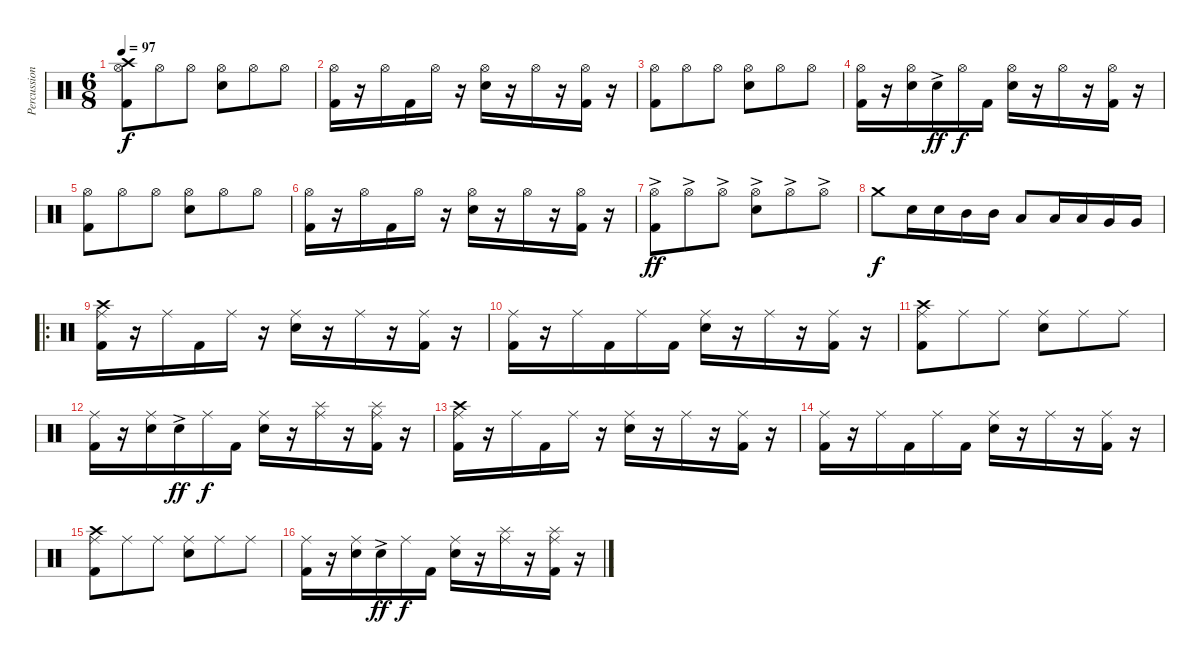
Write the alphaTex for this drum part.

\track ("Percussion" "Percussion") {instrument percussion}
\staff {score}
\articulation defaults
\ts (6 8)
\tempo 97
\clef neutral
\ks c
("Crash high (hit)" "Hi-Hat (open)" "Kick (hit) 2").8{dy f} "Hi-Hat (open)".8 "Hi-Hat (open)".8 ("Hi-Hat (open)" "Electric Snare (hit)").8 "Hi-Hat (open)".8 "Hi-Hat (open)".8 |
("Hi-Hat (open)" "Kick (hit) 2").16 r.16 "Hi-Hat (open)".16 "Kick (hit) 2".16 "Hi-Hat (open)".16 r.16 ("Hi-Hat (open)" "Electric Snare (hit)").16 r.16 "Hi-Hat (open)".16 r.16 ("Hi-Hat (open)" "Kick (hit) 2").16 r.16 |
("Hi-Hat (open)" "Kick (hit) 2").8 "Hi-Hat (open)".8 "Hi-Hat (open)".8 ("Hi-Hat (open)" "Electric Snare (hit)").8 "Hi-Hat (open)".8 "Hi-Hat (open)".8 |
("Hi-Hat (open)" "Kick (hit) 2").16 r.16 ("Hi-Hat (open)" "Electric Snare (hit)").16 "Electric Snare (hit)"{ac}.16{dy ff} "Hi-Hat (open)".16{dy f} "Kick (hit) 2".16 ("Hi-Hat (open)" "Electric Snare (hit)").16 r.16 "Hi-Hat (open)".16 r.16 ("Hi-Hat (open)" "Kick (hit) 2").16 r.16 |
("Hi-Hat (open)" "Kick (hit) 2").8 "Hi-Hat (open)".8 "Hi-Hat (open)".8 ("Hi-Hat (open)" "Electric Snare (hit)").8 "Hi-Hat (open)".8 "Hi-Hat (open)".8 |
("Hi-Hat (open)" "Kick (hit) 2").16 r.16 "Hi-Hat (open)".16 "Kick (hit) 2".16 "Hi-Hat (open)".16 r.16 ("Hi-Hat (open)" "Electric Snare (hit)").16 r.16 "Hi-Hat (open)".16 r.16 ("Hi-Hat (open)" "Kick (hit) 2").16 r.16 |
("Hi-Hat (open)"{ac} "Kick (hit) 2").8{dy ff} "Hi-Hat (open)"{ac}.8 "Hi-Hat (open)"{ac}.8 ("Hi-Hat (open)"{ac} "Electric Snare (hit)").8 "Hi-Hat (open)"{ac}.8 "Hi-Hat (open)"{ac}.8 |
"Crash medium (hit)".8{dy f} "Electric Snare (hit)".16 "Electric Snare (hit)".16 "Mid Tom (hit)".16 "Mid Tom (hit)".16 "Low Tom (hit)".8 "Low Tom (hit)".16 "Low Tom (hit)".16 "Very Low Tom (hit)".16 "Very Low Tom (hit)".16 |
\ro
("Crash high (hit)" "Ride (middle)" "Kick (hit) 2").16 r.16 "Ride (middle)".16 "Kick (hit) 2".16 "Ride (middle)".16 r.16 ("Ride (middle)" "Electric Snare (hit)").16 r.16 "Ride (middle)".16 r.16 ("Ride (middle)" "Kick (hit) 2").16 r.16 |
("Ride (middle)" "Kick (hit) 2").16 r.16 "Ride (middle)".16 "Kick (hit) 2".16 "Ride (middle)".16 "Kick (hit) 2".16 ("Ride (middle)" "Electric Snare (hit)").16 r.16 "Ride (middle)".16 r.16 ("Ride (middle)" "Kick (hit) 2").16 r.16 |
("Crash high (hit)" "Ride (middle)" "Kick (hit) 2").8 "Ride (middle)".8 "Ride (middle)".8 ("Ride (middle)" "Electric Snare (hit)").8 "Ride (middle)".8 "Ride (middle)".8 |
("Ride (middle)" "Kick (hit) 2").16 r.16 ("Ride (middle)" "Electric Snare (hit)").16 "Electric Snare (hit)"{ac}.16{dy ff} "Ride (middle)".16{dy f} "Kick (hit) 2".16 ("Ride (middle)" "Electric Snare (hit)").16 r.16 ("Splash (hit)" "Ride (middle)").16 r.16 ("Splash (hit)" "Ride (middle)" "Kick (hit) 2").16 r.16 |
("Crash high (hit)" "Ride (middle)" "Kick (hit) 2").16 r.16 "Ride (middle)".16 "Kick (hit) 2".16 "Ride (middle)".16 r.16 ("Ride (middle)" "Electric Snare (hit)").16 r.16 "Ride (middle)".16 r.16 ("Ride (middle)" "Kick (hit) 2").16 r.16 |
("Ride (middle)" "Kick (hit) 2").16 r.16 "Ride (middle)".16 "Kick (hit) 2".16 "Ride (middle)".16 "Kick (hit) 2".16 ("Ride (middle)" "Electric Snare (hit)").16 r.16 "Ride (middle)".16 r.16 ("Ride (middle)" "Kick (hit) 2").16 r.16 |
("Crash high (hit)" "Ride (middle)" "Kick (hit) 2").8 "Ride (middle)".8 "Ride (middle)".8 ("Ride (middle)" "Electric Snare (hit)").8 "Ride (middle)".8 "Ride (middle)".8 |
("Ride (middle)" "Kick (hit) 2").16 r.16 ("Ride (middle)" "Electric Snare (hit)").16 "Electric Snare (hit)"{ac}.16{dy ff} "Ride (middle)".16{dy f} "Kick (hit) 2".16 ("Ride (middle)" "Electric Snare (hit)").16 r.16 ("Splash (hit)" "Ride (middle)").16 r.16 ("Splash (hit)" "Ride (middle)" "Kick (hit) 2").16 r.16
